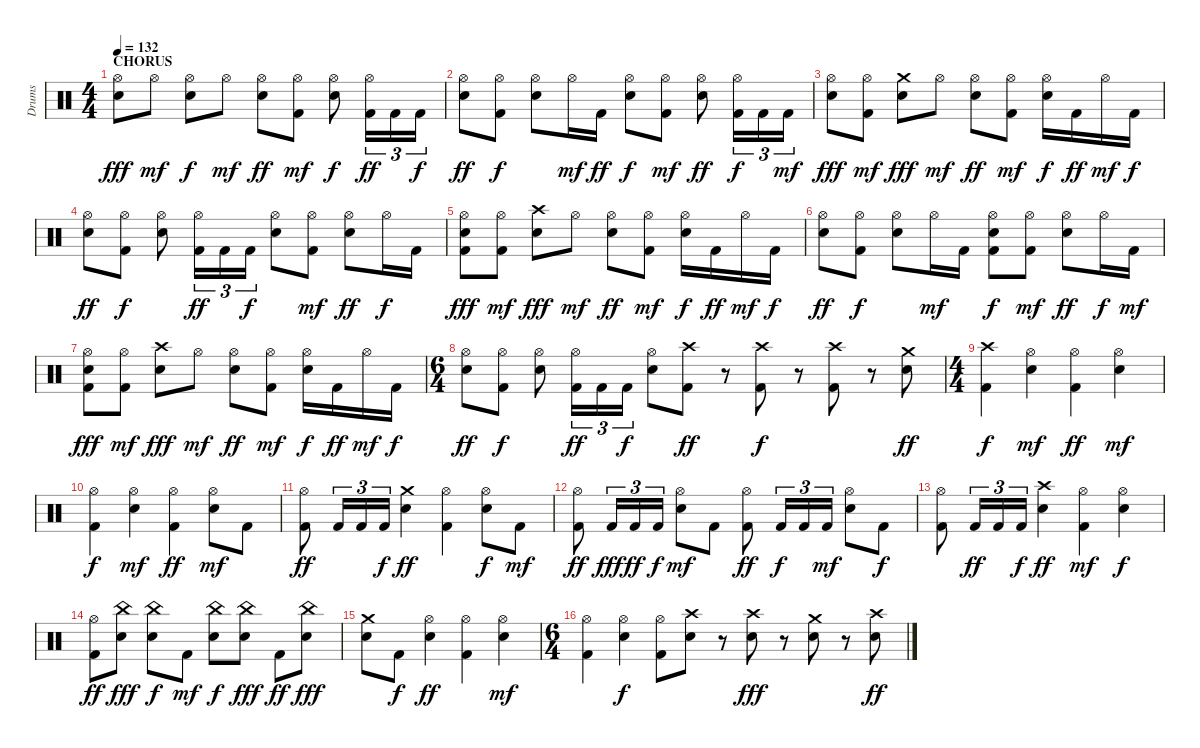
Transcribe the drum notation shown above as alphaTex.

\track ("Drums" "Drums") {instrument percussion}
\staff {score}
\articulation defaults
\ts (4 4)
\section ("" "CHORUS")
\tempo 132
\clef neutral
\ks c
("Hi-Hat (open)" "Electric Snare (hit)").8{dy fff} "Hi-Hat (open)".8{dy mf} ("Hi-Hat (open)" "Electric Snare (hit)").8{dy f} "Hi-Hat (open)".8{dy mf} ("Hi-Hat (open)" "Electric Snare (hit)").8{dy ff} ("Hi-Hat (open)" "Kick (hit) 2").8{dy mf} ("Hi-Hat (open)" "Electric Snare (hit)").8{dy f} ("Hi-Hat (open)" "Kick (hit) 2").16{tu (3 2) dy ff} "Kick (hit) 2".16{tu (3 2)} "Kick (hit) 2".16{tu (3 2) dy f} |
("Hi-Hat (open)" "Electric Snare (hit)").8{dy ff} ("Hi-Hat (open)" "Kick (hit) 2").8{dy f} ("Hi-Hat (open)" "Electric Snare (hit)").8 "Hi-Hat (open)".16{dy mf} "Kick (hit) 2".16{dy ff} ("Hi-Hat (open)" "Electric Snare (hit)").8{dy f} ("Hi-Hat (open)" "Kick (hit) 2").8{dy mf} ("Hi-Hat (open)" "Electric Snare (hit)").8{dy ff} ("Hi-Hat (open)" "Kick (hit) 2").16{tu (3 2) dy f} "Kick (hit) 2".16{tu (3 2)} "Kick (hit) 2".16{tu (3 2) dy mf} |
("Hi-Hat (open)" "Electric Snare (hit)").8{dy fff} ("Hi-Hat (open)" "Kick (hit) 2").8{dy mf} ("Crash medium (hit)" "Electric Snare (hit)").8{dy fff} "Hi-Hat (open)".8{dy mf} ("Hi-Hat (open)" "Electric Snare (hit)").8{dy ff} ("Hi-Hat (open)" "Kick (hit) 2").8{dy mf} ("Hi-Hat (open)" "Electric Snare (hit)").16{dy f} "Kick (hit) 2".16{dy ff} "Hi-Hat (open)".16{dy mf} "Kick (hit) 2".16{dy f} |
("Hi-Hat (open)" "Electric Snare (hit)").8{dy ff} ("Hi-Hat (open)" "Kick (hit) 2").8{dy f} ("Hi-Hat (open)" "Electric Snare (hit)").8 ("Hi-Hat (open)" "Kick (hit) 2").16{tu (3 2) dy ff} "Kick (hit) 2".16{tu (3 2)} "Kick (hit) 2".16{tu (3 2) dy f} ("Hi-Hat (open)" "Electric Snare (hit)").8 ("Hi-Hat (open)" "Kick (hit) 2").8{dy mf} ("Hi-Hat (open)" "Electric Snare (hit)").8{dy ff} "Hi-Hat (open)".16{dy f} "Kick (hit) 2".16 |
("Hi-Hat (open)" "Electric Snare (hit)" "Kick (hit) 2").8{dy fff} ("Hi-Hat (open)" "Kick (hit) 2").8{dy mf} ("Crash high (hit)" "Electric Snare (hit)").8{dy fff} "Hi-Hat (open)".8{dy mf} ("Hi-Hat (open)" "Electric Snare (hit)").8{dy ff} ("Hi-Hat (open)" "Kick (hit) 2").8{dy mf} ("Hi-Hat (open)" "Electric Snare (hit)").16{dy f} "Kick (hit) 2".16{dy ff} "Hi-Hat (open)".16{dy mf} "Kick (hit) 2".16{dy f} |
("Hi-Hat (open)" "Electric Snare (hit)").8{dy ff} ("Hi-Hat (open)" "Kick (hit) 2").8{dy f} ("Hi-Hat (open)" "Electric Snare (hit)").8 "Hi-Hat (open)".16{dy mf} "Kick (hit) 2".16 ("Hi-Hat (open)" "Electric Snare (hit)" "Kick (hit) 2").8{dy f} ("Hi-Hat (open)" "Kick (hit) 2").8{dy mf} ("Hi-Hat (open)" "Electric Snare (hit)").8{dy ff} "Hi-Hat (open)".16{dy f} "Kick (hit) 2".16{dy mf} |
("Hi-Hat (open)" "Electric Snare (hit)" "Kick (hit) 2").8{dy fff} ("Hi-Hat (open)" "Kick (hit) 2").8{dy mf} ("Crash high (hit)" "Electric Snare (hit)").8{dy fff} "Hi-Hat (open)".8{dy mf} ("Hi-Hat (open)" "Electric Snare (hit)").8{dy ff} ("Hi-Hat (open)" "Kick (hit) 2").8{dy mf} ("Hi-Hat (open)" "Electric Snare (hit)").16{dy f} "Kick (hit) 2".16{dy ff} "Hi-Hat (open)".16{dy mf} "Kick (hit) 2".16{dy f} |
\ts (6 4)
("Hi-Hat (open)" "Electric Snare (hit)").8{dy ff} ("Hi-Hat (open)" "Kick (hit) 2").8{dy f} ("Hi-Hat (open)" "Electric Snare (hit)").8 ("Hi-Hat (open)" "Kick (hit) 2").16{tu (3 2) dy ff} "Kick (hit) 2".16{tu (3 2)} "Kick (hit) 2".16{tu (3 2) dy f} ("Hi-Hat (open)" "Electric Snare (hit)").8 ("Crash high (hit)" "Kick (hit) 2").8{dy ff} r.8{volume 0} ("Crash high (hit)" "Kick (hit) 2").8{dy f volume 14} r.8{volume 0} ("Crash high (hit)" "Kick (hit) 2").8{volume 14} r.8{volume 0} ("Crash medium (hit)" "Electric Snare (hit)").8{dy ff volume 14} |
\ts (4 4)
("Crash high (hit)" "Kick (hit) 2").4{dy f} ("Hi-Hat (open)" "Electric Snare (hit)").4{dy mf} ("Hi-Hat (open)" "Kick (hit) 2").4{dy ff} ("Hi-Hat (open)" "Electric Snare (hit)").4{dy mf} |
("Hi-Hat (open)" "Kick (hit) 2").4{dy f} ("Hi-Hat (open)" "Electric Snare (hit)").4{dy mf} ("Hi-Hat (open)" "Kick (hit) 2").4{dy ff} ("Hi-Hat (open)" "Electric Snare (hit)").8{dy mf} "Kick (hit) 2".8 |
("Hi-Hat (open)" "Kick (hit) 2").8{dy ff} "Kick (hit) 2".16{tu (3 2)} "Kick (hit) 2".16{tu (3 2)} "Kick (hit) 2".16{tu (3 2) dy f} ("Crash medium (hit)" "Electric Snare (hit)").4{dy ff} ("Hi-Hat (open)" "Kick (hit) 2").4 ("Hi-Hat (open)" "Electric Snare (hit)").8{dy f} "Kick (hit) 2".8{dy mf} |
("Hi-Hat (open)" "Kick (hit) 2").8{dy ff} "Kick (hit) 2".16{tu (3 2) dy fff} "Kick (hit) 2".16{tu (3 2) dy ff} "Kick (hit) 2".16{tu (3 2) dy f} ("Hi-Hat (open)" "Electric Snare (hit)").8{dy mf} "Kick (hit) 2".8 ("Hi-Hat (open)" "Kick (hit) 2").8{dy ff} "Kick (hit) 2".16{tu (3 2) dy f} "Kick (hit) 2".16{tu (3 2)} "Kick (hit) 2".16{tu (3 2) dy mf} ("Hi-Hat (open)" "Electric Snare (hit)").8 "Kick (hit) 2".8{dy f} |
("Hi-Hat (open)" "Kick (hit) 2").8 "Kick (hit) 2".16{tu (3 2) dy ff} "Kick (hit) 2".16{tu (3 2)} "Kick (hit) 2".16{tu (3 2) dy f} ("Crash high (hit)" "Electric Snare (hit)").4{dy ff} ("Hi-Hat (open)" "Kick (hit) 2").4{dy mf} ("Hi-Hat (open)" "Electric Snare (hit)").4{dy f} |
("Hi-Hat (open)" "Kick (hit) 2").8{dy ff} ("China (hit)" "Electric Snare (hit)").8{dy fff} ("China (hit)" "Electric Snare (hit)").8{dy f} "Kick (hit) 2".8{dy mf} ("China (hit)" "Electric Snare (hit)").8{dy f} ("China (hit)" "Electric Snare (hit)").8{dy fff} "Kick (hit) 2".8{dy ff} ("China (hit)" "Electric Snare (hit)").8{dy fff} |
("Crash medium (hit)" "Electric Snare (hit)").8 "Kick (hit) 2".8{dy f} ("Hi-Hat (open)" "Electric Snare (hit)").4{dy ff} ("Hi-Hat (open)" "Kick (hit) 2").4 ("Hi-Hat (open)" "Electric Snare (hit)").4{dy mf} |
\ts (6 4)
("Hi-Hat (open)" "Kick (hit) 2").4 ("Hi-Hat (open)" "Electric Snare (hit)").4{dy f} ("Hi-Hat (open)" "Kick (hit) 2").8 ("Crash high (hit)" "Electric Snare (hit)").8 r.8 ("Crash high (hit)" "Electric Snare (hit)").8{dy fff} r.8 ("Crash medium (hit)" "Electric Snare (hit)").8 r.8 ("Crash high (hit)" "Electric Snare (hit)").8{dy ff}
